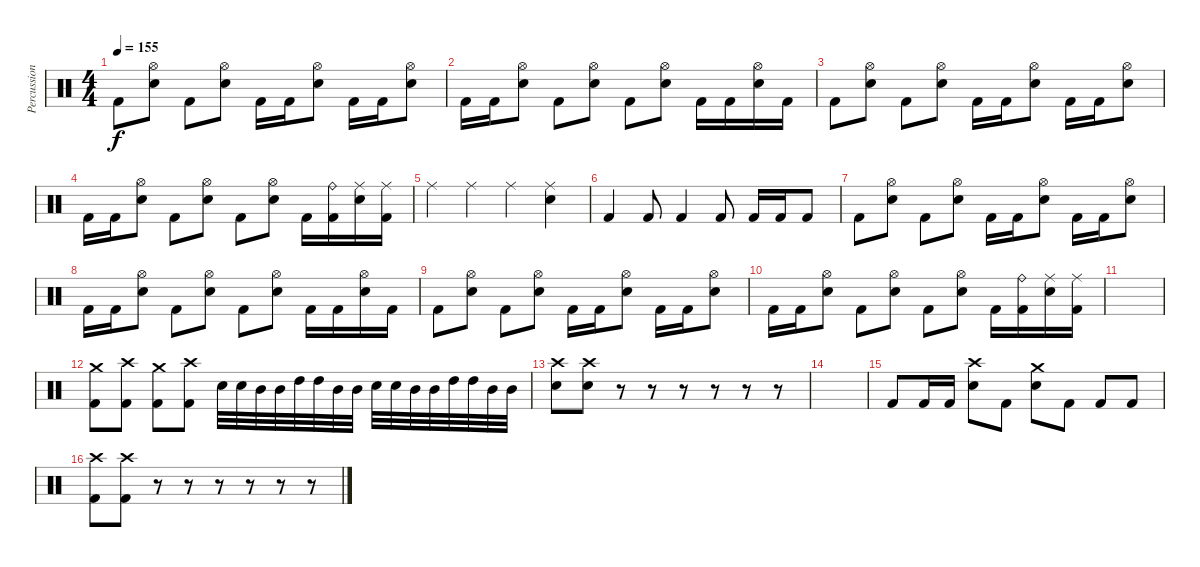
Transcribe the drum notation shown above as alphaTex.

\track ("Percussion" "Percussion") {instrument percussion}
\staff {score}
\articulation defaults
\ts (4 4)
\tempo 155
\clef neutral
\ks c "Kick (hit) 2".8{dy f}
("Hi-Hat (open)" "Snare (hit) 2").8 "Kick (hit) 2".8 ("Hi-Hat (open)" "Snare (hit) 2").8 "Kick (hit) 2".16 "Kick (hit) 2".16 ("Hi-Hat (open)" "Snare (hit) 2").8 "Kick (hit) 2".16 "Kick (hit) 2".16 ("Hi-Hat (open)" "Snare (hit) 2").8 |
"Kick (hit) 2".16 "Kick (hit) 2".16 ("Hi-Hat (open)" "Snare (hit) 2").8 "Kick (hit) 2".8 ("Hi-Hat (open)" "Snare (hit) 2").8 "Kick (hit) 2".8 ("Hi-Hat (open)" "Snare (hit) 2").8 "Kick (hit) 2".16 "Kick (hit) 2".16 ("Hi-Hat (open)" "Snare (hit) 2").16 "Kick (hit) 2".16 |
"Kick (hit) 2".8 ("Hi-Hat (open)" "Snare (hit) 2").8 "Kick (hit) 2".8 ("Hi-Hat (open)" "Snare (hit) 2").8 "Kick (hit) 2".16 "Kick (hit) 2".16 ("Hi-Hat (open)" "Snare (hit) 2").8 "Kick (hit) 2".16 "Kick (hit) 2".16 ("Hi-Hat (open)" "Snare (hit) 2").8 |
"Kick (hit) 2".16 "Kick (hit) 2".16 ("Hi-Hat (open)" "Snare (hit) 2").8 "Kick (hit) 2".8 ("Hi-Hat (open)" "Snare (hit) 2").8 "Kick (hit) 2".8 ("Hi-Hat (open)" "Snare (hit) 2").8 "Kick (hit) 2".16 ("Ride (bell)" "Kick (hit) 2").16 ("Ride (middle)" "Snare (hit) 2").16 ("Ride (middle)" "Kick (hit) 2").16 |
"Ride (middle)".4 "Ride (middle)".4 "Ride (middle)".4 ("Ride (middle)" "Snare (hit) 2").4 |
"Kick (hit) 2".4 "Kick (hit) 2".8 "Kick (hit) 2".4 "Kick (hit) 2".8 "Kick (hit) 2".16 "Kick (hit) 2".16 "Kick (hit) 2".8 |
"Kick (hit) 2".8 ("Hi-Hat (open)" "Snare (hit) 2").8 "Kick (hit) 2".8 ("Hi-Hat (open)" "Snare (hit) 2").8 "Kick (hit) 2".16 "Kick (hit) 2".16 ("Hi-Hat (open)" "Snare (hit) 2").8 "Kick (hit) 2".16 "Kick (hit) 2".16 ("Hi-Hat (open)" "Snare (hit) 2").8 |
"Kick (hit) 2".16 "Kick (hit) 2".16 ("Hi-Hat (open)" "Snare (hit) 2").8 "Kick (hit) 2".8 ("Hi-Hat (open)" "Snare (hit) 2").8 "Kick (hit) 2".8 ("Hi-Hat (open)" "Snare (hit) 2").8 "Kick (hit) 2".16 "Kick (hit) 2".16 ("Hi-Hat (open)" "Snare (hit) 2").16 "Kick (hit) 2".16 |
"Kick (hit) 2".8 ("Hi-Hat (open)" "Snare (hit) 2").8 "Kick (hit) 2".8 ("Hi-Hat (open)" "Snare (hit) 2").8 "Kick (hit) 2".16 "Kick (hit) 2".16 ("Hi-Hat (open)" "Snare (hit) 2").8 "Kick (hit) 2".16 "Kick (hit) 2".16 ("Hi-Hat (open)" "Snare (hit) 2").8 |
"Kick (hit) 2".16 "Kick (hit) 2".16 ("Hi-Hat (open)" "Snare (hit) 2").8 "Kick (hit) 2".8 ("Hi-Hat (open)" "Snare (hit) 2").8 "Kick (hit) 2".8 ("Hi-Hat (open)" "Snare (hit) 2").8 "Kick (hit) 2".16 ("Ride (bell)" "Kick (hit) 2").16 ("Ride (middle)" "Snare (hit) 2").16 ("Ride (middle)" "Kick (hit) 2").16 |
|
("Crash medium (hit)" "Kick (hit) 2").8 ("Crash high (hit)" "Kick (hit) 2").8 ("Crash medium (hit)" "Kick (hit) 2").8 ("Crash high (hit)" "Kick (hit) 2").8 "Snare (hit) 2".32 "Snare (hit) 2".32 "Mid Tom (hit)".32 "Mid Tom (hit)".32 "High Tom (hit)".32 "High Tom (hit)".32 "Mid Tom (hit)".32 "Mid Tom (hit)".32 "Snare (hit) 2".32 "Snare (hit) 2".32 "Mid Tom (hit)".32 "Mid Tom (hit)".32 "High Tom (hit)".32 "High Tom (hit)".32 "Mid Tom (hit)".32 "Mid Tom (hit)".32 |
("Crash high (hit)" "Snare (hit) 2").8 ("Crash high (hit)" "Snare (hit) 2").8 r.8 r.8 r.8 r.8 r.8 r.8 |
|
"Kick (hit) 2".8 "Kick (hit) 2".16 "Kick (hit) 2".16 ("Crash high (hit)" "Snare (hit) 2").8 "Kick (hit) 2".8 ("Crash medium (hit)" "Snare (hit) 2").8 "Kick (hit) 2".8 "Kick (hit) 2".8 "Kick (hit) 2".8 |
("Crash high (hit)" "Kick (hit) 2").8 ("Crash high (hit)" "Kick (hit) 2").8 r.8 r.8 r.8 r.8 r.8 r.8
